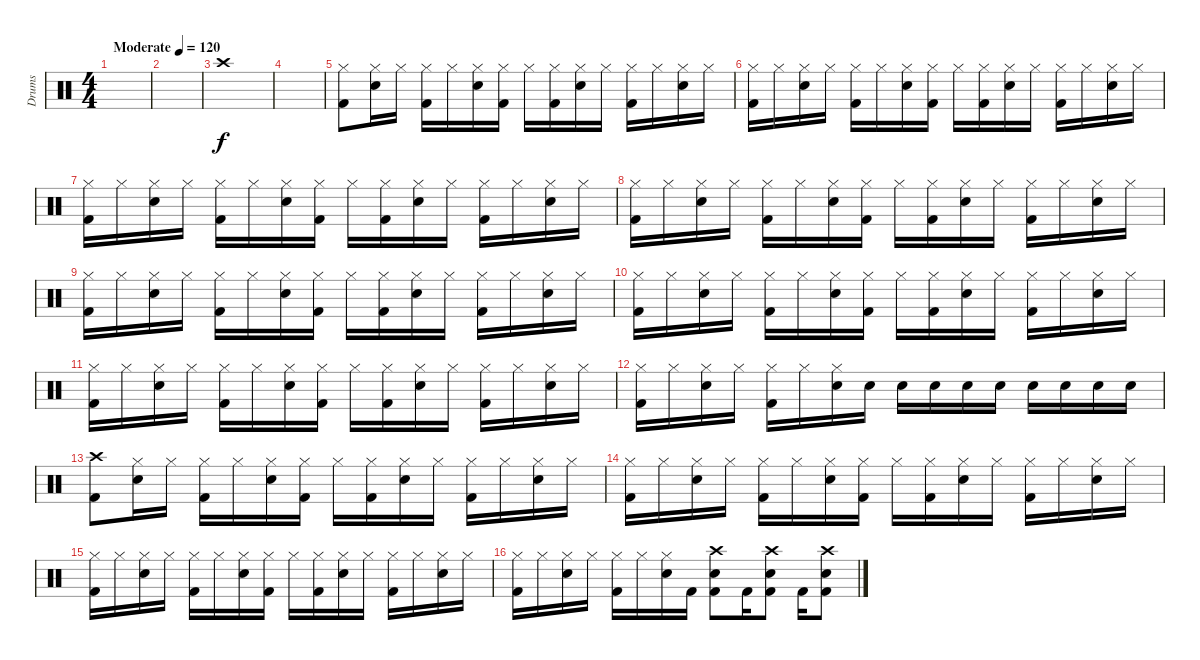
\track ("Drums" "Drums") {instrument percussion}
\staff {score}
\articulation defaults
\ts (4 4)
\tempo (120 "Moderate")
\clef neutral
\ks c
|
|
"Crash high (hit)".1 |
|
("Hi-Hat (closed)" "Kick (hit) 2").8 ("Hi-Hat (closed)" "Electric Snare (hit)").16 "Hi-Hat (closed)".16 ("Hi-Hat (closed)" "Kick (hit) 2").16 "Hi-Hat (closed)".16 ("Hi-Hat (closed)" "Electric Snare (hit)").16 ("Hi-Hat (closed)" "Kick (hit) 2").16 "Hi-Hat (closed)".16 ("Hi-Hat (closed)" "Kick (hit) 2").16 ("Hi-Hat (closed)" "Electric Snare (hit)").16 "Hi-Hat (closed)".16 ("Hi-Hat (closed)" "Kick (hit) 2").16 "Hi-Hat (closed)".16 ("Hi-Hat (closed)" "Electric Snare (hit)").16 "Hi-Hat (closed)".16 |
("Hi-Hat (closed)" "Kick (hit) 2").16 "Hi-Hat (closed)".16 ("Hi-Hat (closed)" "Electric Snare (hit)").16 "Hi-Hat (closed)".16 ("Hi-Hat (closed)" "Kick (hit) 2").16 "Hi-Hat (closed)".16 ("Hi-Hat (closed)" "Electric Snare (hit)").16 ("Hi-Hat (closed)" "Kick (hit) 2").16 "Hi-Hat (closed)".16 ("Hi-Hat (closed)" "Kick (hit) 2").16 ("Hi-Hat (closed)" "Electric Snare (hit)").16 "Hi-Hat (closed)".16 ("Hi-Hat (closed)" "Kick (hit) 2").16 "Hi-Hat (closed)".16 ("Hi-Hat (closed)" "Electric Snare (hit)").16 "Hi-Hat (closed)".16 |
("Hi-Hat (closed)" "Kick (hit) 2").16 "Hi-Hat (closed)".16 ("Hi-Hat (closed)" "Electric Snare (hit)").16 "Hi-Hat (closed)".16 ("Hi-Hat (closed)" "Kick (hit) 2").16 "Hi-Hat (closed)".16 ("Hi-Hat (closed)" "Electric Snare (hit)").16 ("Hi-Hat (closed)" "Kick (hit) 2").16 "Hi-Hat (closed)".16 ("Hi-Hat (closed)" "Kick (hit) 2").16 ("Hi-Hat (closed)" "Electric Snare (hit)").16 "Hi-Hat (closed)".16 ("Hi-Hat (closed)" "Kick (hit) 2").16 "Hi-Hat (closed)".16 ("Hi-Hat (closed)" "Electric Snare (hit)").16 "Hi-Hat (closed)".16 |
("Hi-Hat (closed)" "Kick (hit) 2").16 "Hi-Hat (closed)".16 ("Hi-Hat (closed)" "Electric Snare (hit)").16 "Hi-Hat (closed)".16 ("Hi-Hat (closed)" "Kick (hit) 2").16 "Hi-Hat (closed)".16 ("Hi-Hat (closed)" "Electric Snare (hit)").16 ("Hi-Hat (closed)" "Kick (hit) 2").16 "Hi-Hat (closed)".16 ("Hi-Hat (closed)" "Kick (hit) 2").16 ("Hi-Hat (closed)" "Electric Snare (hit)").16 "Hi-Hat (closed)".16 ("Hi-Hat (closed)" "Kick (hit) 2").16 "Hi-Hat (closed)".16 ("Hi-Hat (closed)" "Electric Snare (hit)").16 "Hi-Hat (closed)".16 |
("Hi-Hat (closed)" "Kick (hit) 2").16 "Hi-Hat (closed)".16 ("Hi-Hat (closed)" "Electric Snare (hit)").16 "Hi-Hat (closed)".16 ("Hi-Hat (closed)" "Kick (hit) 2").16 "Hi-Hat (closed)".16 ("Hi-Hat (closed)" "Electric Snare (hit)").16 ("Hi-Hat (closed)" "Kick (hit) 2").16 "Hi-Hat (closed)".16 ("Hi-Hat (closed)" "Kick (hit) 2").16 ("Hi-Hat (closed)" "Electric Snare (hit)").16 "Hi-Hat (closed)".16 ("Hi-Hat (closed)" "Kick (hit) 2").16 "Hi-Hat (closed)".16 ("Hi-Hat (closed)" "Electric Snare (hit)").16 "Hi-Hat (closed)".16 |
("Hi-Hat (closed)" "Kick (hit) 2").16 "Hi-Hat (closed)".16 ("Hi-Hat (closed)" "Electric Snare (hit)").16 "Hi-Hat (closed)".16 ("Hi-Hat (closed)" "Kick (hit) 2").16 "Hi-Hat (closed)".16 ("Hi-Hat (closed)" "Electric Snare (hit)").16 ("Hi-Hat (closed)" "Kick (hit) 2").16 "Hi-Hat (closed)".16 ("Hi-Hat (closed)" "Kick (hit) 2").16 ("Hi-Hat (closed)" "Electric Snare (hit)").16 "Hi-Hat (closed)".16 ("Hi-Hat (closed)" "Kick (hit) 2").16 "Hi-Hat (closed)".16 ("Hi-Hat (closed)" "Electric Snare (hit)").16 "Hi-Hat (closed)".16 |
("Hi-Hat (closed)" "Kick (hit) 2").16 "Hi-Hat (closed)".16 ("Hi-Hat (closed)" "Electric Snare (hit)").16 "Hi-Hat (closed)".16 ("Hi-Hat (closed)" "Kick (hit) 2").16 "Hi-Hat (closed)".16 ("Hi-Hat (closed)" "Electric Snare (hit)").16 ("Hi-Hat (closed)" "Kick (hit) 2").16 "Hi-Hat (closed)".16 ("Hi-Hat (closed)" "Kick (hit) 2").16 ("Hi-Hat (closed)" "Electric Snare (hit)").16 "Hi-Hat (closed)".16 ("Hi-Hat (closed)" "Kick (hit) 2").16 "Hi-Hat (closed)".16 ("Hi-Hat (closed)" "Electric Snare (hit)").16 "Hi-Hat (closed)".16 |
("Hi-Hat (closed)" "Kick (hit) 2").16 "Hi-Hat (closed)".16 ("Hi-Hat (closed)" "Electric Snare (hit)").16 "Hi-Hat (closed)".16 ("Hi-Hat (closed)" "Kick (hit) 2").16 "Hi-Hat (closed)".16 ("Hi-Hat (closed)" "Electric Snare (hit)").16 "Snare (hit) 2".16 "Snare (hit) 2".16 "Snare (hit) 2".16 "Snare (hit) 2".16 "Snare (hit) 2".16 "Snare (hit) 2".16 "Snare (hit) 2".16 "Snare (hit) 2".16 "Snare (hit) 2".16 |
("Crash high (hit)" "Kick (hit) 2").8 ("Hi-Hat (closed)" "Electric Snare (hit)").16 "Hi-Hat (closed)".16 ("Hi-Hat (closed)" "Kick (hit) 2").16 "Hi-Hat (closed)".16 ("Hi-Hat (closed)" "Electric Snare (hit)").16 ("Hi-Hat (closed)" "Kick (hit) 2").16 "Hi-Hat (closed)".16 ("Hi-Hat (closed)" "Kick (hit) 2").16 ("Hi-Hat (closed)" "Electric Snare (hit)").16 "Hi-Hat (closed)".16 ("Hi-Hat (closed)" "Kick (hit) 2").16 "Hi-Hat (closed)".16 ("Hi-Hat (closed)" "Electric Snare (hit)").16 "Hi-Hat (closed)".16 |
("Hi-Hat (closed)" "Kick (hit) 2").16 "Hi-Hat (closed)".16 ("Hi-Hat (closed)" "Electric Snare (hit)").16 "Hi-Hat (closed)".16 ("Hi-Hat (closed)" "Kick (hit) 2").16 "Hi-Hat (closed)".16 ("Hi-Hat (closed)" "Electric Snare (hit)").16 ("Hi-Hat (closed)" "Kick (hit) 2").16 "Hi-Hat (closed)".16 ("Hi-Hat (closed)" "Kick (hit) 2").16 ("Hi-Hat (closed)" "Electric Snare (hit)").16 "Hi-Hat (closed)".16 ("Hi-Hat (closed)" "Kick (hit) 2").16 "Hi-Hat (closed)".16 ("Hi-Hat (closed)" "Electric Snare (hit)").16 "Hi-Hat (closed)".16 |
("Hi-Hat (closed)" "Kick (hit) 2").16 "Hi-Hat (closed)".16 ("Hi-Hat (closed)" "Electric Snare (hit)").16 "Hi-Hat (closed)".16 ("Hi-Hat (closed)" "Kick (hit) 2").16 "Hi-Hat (closed)".16 ("Hi-Hat (closed)" "Electric Snare (hit)").16 ("Hi-Hat (closed)" "Kick (hit) 2").16 "Hi-Hat (closed)".16 ("Hi-Hat (closed)" "Kick (hit) 2").16 ("Hi-Hat (closed)" "Electric Snare (hit)").16 "Hi-Hat (closed)".16 ("Hi-Hat (closed)" "Kick (hit) 2").16 "Hi-Hat (closed)".16 ("Hi-Hat (closed)" "Electric Snare (hit)").16 "Hi-Hat (closed)".16 |
("Hi-Hat (closed)" "Kick (hit) 2").16 "Hi-Hat (closed)".16 ("Hi-Hat (closed)" "Electric Snare (hit)").16 "Hi-Hat (closed)".16 ("Hi-Hat (closed)" "Kick (hit) 2").16 "Hi-Hat (closed)".16 ("Hi-Hat (closed)" "Electric Snare (hit)").16 "Kick (hit) 2".16 ("Electric Snare (hit)" "Crash high (hit)" "Kick (hit) 2").8 "Kick (hit) 2".16 ("Electric Snare (hit)" "Crash high (hit)" "Kick (hit) 2").8 "Kick (hit) 2".16 ("Electric Snare (hit)" "Crash high (hit)" "Kick (hit) 2").8
